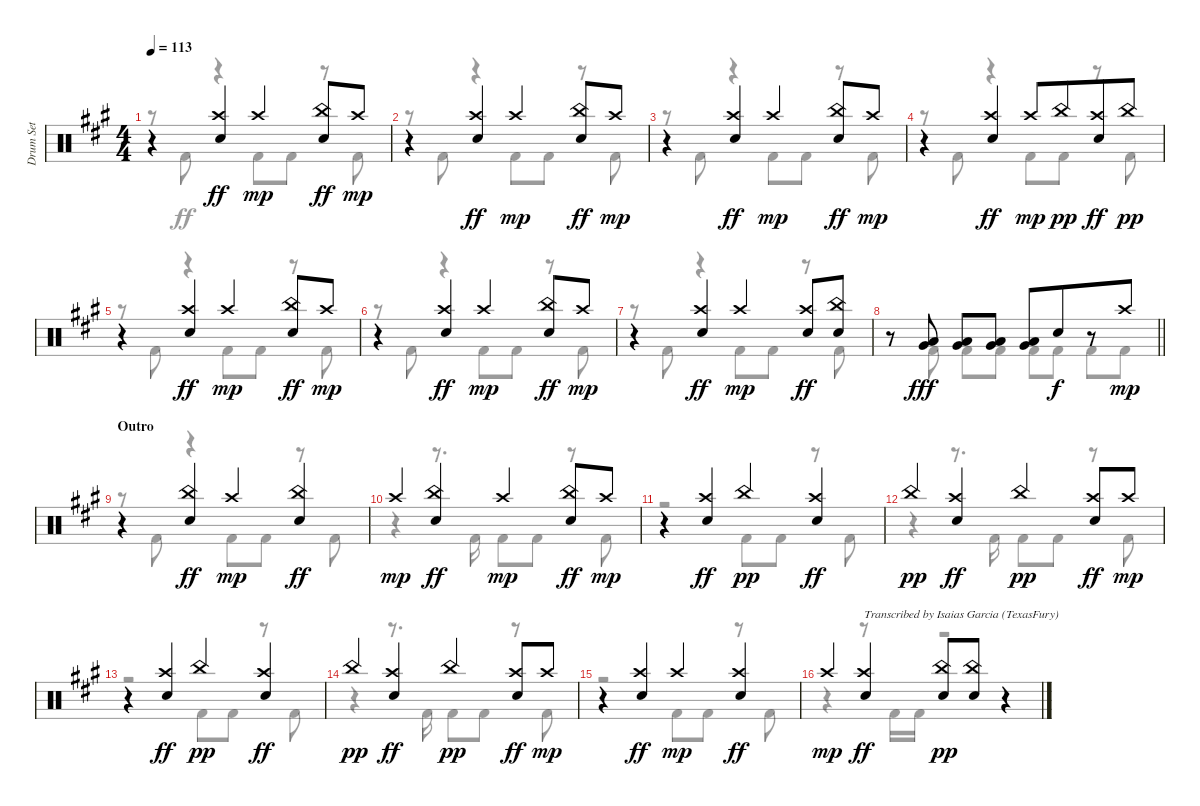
\track ("Drum Set" "Drum Set") {instrument percussion}
\staff {score}
\articulation defaults
\voice
\ts (4 4)
\tempo 113
\clef neutral
\ks f#minor
r.4{dy pp} ("Crash high (hit)" "Electric Snare (hit)").4{dy ff} "Crash high (hit)".4{dy mp} ("China (hit)" "Electric Snare (hit)").8{dy ff} "Crash high (hit)".8{dy mp} |
r.4 ("Crash high (hit)" "Electric Snare (hit)").4{dy ff} "Crash high (hit)".4{dy mp} ("China (hit)" "Electric Snare (hit)").8{dy ff} "Crash high (hit)".8{dy mp} |
r.4 ("Crash high (hit)" "Electric Snare (hit)").4{dy ff} "Crash high (hit)".4{dy mp} ("China (hit)" "Electric Snare (hit)").8{dy ff} "Crash high (hit)".8{dy mp} |
r.4 ("Crash high (hit)" "Electric Snare (hit)").4{dy ff} "Crash high (hit)".8{dy mp} "China (hit)".8{dy pp beam merge} ("Crash high (hit)" "Electric Snare (hit)").8{dy ff} "China (hit)".8{dy pp} |
r.4 ("Crash high (hit)" "Electric Snare (hit)").4{dy ff} "Crash high (hit)".4{dy mp} ("China (hit)" "Electric Snare (hit)").8{dy ff} "Crash high (hit)".8{dy mp} |
r.4 ("Crash high (hit)" "Electric Snare (hit)").4{dy ff} "Crash high (hit)".4{dy mp} ("China (hit)" "Electric Snare (hit)").8{dy ff} "Crash high (hit)".8{dy mp} |
r.4 ("Crash high (hit)" "Electric Snare (hit)").4{dy ff} "Crash high (hit)".4{dy mp} ("Crash high (hit)" "Electric Snare (hit)").8{dy ff} ("China (hit)" "Electric Snare (hit)").8 |
\barLineRight lightlight
r.8 ("Low Tom (hit)" "Very Low Tom (hit)").8{dy fff} ("Low Tom (hit)" "Very Low Tom (hit)").8 ("Low Tom (hit)" "Very Low Tom (hit)").8 ("Low Tom (hit)" "Very Low Tom (hit)").8 "Electric Snare (hit)".8{dy f beam merge} r.8 "Crash high (hit)".8{dy mp} |
\section ("" "Outro")
r.4 ("China (hit)" "Electric Snare (hit)").4{dy ff} "Crash high (hit)".4{dy mp} ("China (hit)" "Electric Snare (hit)").4{dy ff} |
"Crash high (hit)".4{dy mp} ("China (hit)" "Electric Snare (hit)").4{dy ff} "Crash high (hit)".4{dy mp} ("China (hit)" "Electric Snare (hit)").8{dy ff} "Crash high (hit)".8{dy mp} |
r.4 ("Crash high (hit)" "Electric Snare (hit)").4{dy ff} "China (hit)".4{dy pp} ("Crash high (hit)" "Electric Snare (hit)").4{dy ff} |
"China (hit)".4{dy pp} ("Crash high (hit)" "Electric Snare (hit)").4{dy ff} "China (hit)".4{dy pp} ("Crash high (hit)" "Electric Snare (hit)").8{dy ff} "Crash high (hit)".8{dy mp} |
r.4 ("Crash high (hit)" "Electric Snare (hit)").4{dy ff} "China (hit)".4{dy pp} ("Crash high (hit)" "Electric Snare (hit)").4{dy ff} |
"China (hit)".4{dy pp} ("Crash high (hit)" "Electric Snare (hit)").4{dy ff} "China (hit)".4{dy pp} ("Crash high (hit)" "Electric Snare (hit)").8{dy ff} "Crash high (hit)".8{dy mp} |
r.4 ("Crash high (hit)" "Electric Snare (hit)").4{dy ff} "Crash high (hit)".4{dy mp} ("Crash high (hit)" "Electric Snare (hit)").4{dy ff} |
"Crash high (hit)".4{dy mp} ("Crash high (hit)" "Electric Snare (hit)").4{txt "Transcribed by Isaias Garcia (TexasFury)" dy ff} ("Electric Snare (hit)" "China (hit)").8{dy pp} ("Electric Snare (hit)" "China (hit)").8 r.4{volume 0}
\voice
\clef neutral
\ottava regular
\simile none
\ks f#minor
r.8{dy ff} "Kick (hit) 2".8 r.4 "Kick (hit) 2".8 "Kick (hit) 2".8 r.8 "Kick (hit) 2".8 |
r.8 "Kick (hit) 2".8 r.4 "Kick (hit) 2".8 "Kick (hit) 2".8 r.8 "Kick (hit) 2".8 |
r.8 "Kick (hit) 2".8 r.4 "Kick (hit) 2".8 "Kick (hit) 2".8 r.8 "Kick (hit) 2".8 |
r.8 "Kick (hit) 2".8 r.4 "Kick (hit) 2".8 "Kick (hit) 2".8 r.8 "Kick (hit) 2".8 |
r.8 "Kick (hit) 2".8 r.4 "Kick (hit) 2".8 "Kick (hit) 2".8 r.8 "Kick (hit) 2".8 |
r.8 "Kick (hit) 2".8 r.4 "Kick (hit) 2".8 "Kick (hit) 2".8 r.8 "Kick (hit) 2".8 |
r.8 "Kick (hit) 2".8 r.4 "Kick (hit) 2".8 "Kick (hit) 2".8 r.8 "Kick (hit) 2".8 |
\barLineRight lightlight
r.8 "Kick (hit) 2".8 "Kick (hit) 2".8 "Kick (hit) 2".8 "Kick (hit) 2".8 "Kick (hit) 2".8 "Kick (hit) 2".8 "Kick (hit) 2".8 |
r.8 "Kick (hit) 2".8 r.4 "Kick (hit) 2".8 "Kick (hit) 2".8 r.8 "Kick (hit) 2".8 |
r.4 r.8{d} "Kick (hit) 2".16 "Kick (hit) 2".8 "Kick (hit) 2".8 r.8 "Kick (hit) 2".8 |
r.2 "Kick (hit) 2".8 "Kick (hit) 2".8 r.8 "Kick (hit) 2".8 |
r.4 r.8{d} "Kick (hit) 2".16 "Kick (hit) 2".8 "Kick (hit) 2".8 r.8 "Kick (hit) 2".8 |
r.2 "Kick (hit) 2".8 "Kick (hit) 2".8 r.8 "Kick (hit) 2".8 |
r.4 r.8{d} "Kick (hit) 2".16 "Kick (hit) 2".8 "Kick (hit) 2".8 r.8 "Kick (hit) 2".8 |
r.2 "Kick (hit) 2".8 "Kick (hit) 2".8 r.8 "Kick (hit) 2".8 |
r.4 r.8 "Kick (hit) 2".16 "Kick (hit) 2".16 r.2
